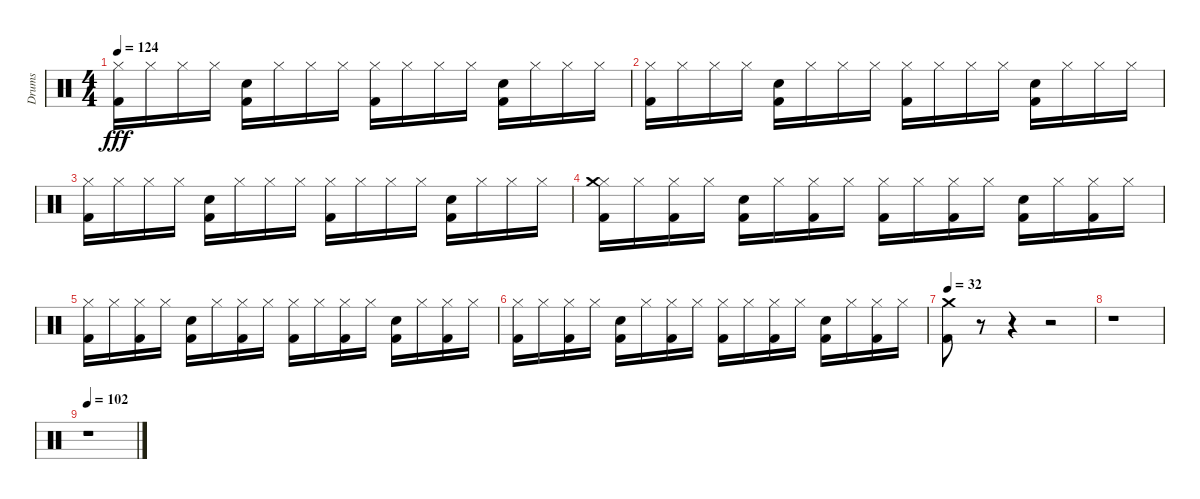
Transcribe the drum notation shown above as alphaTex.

\track ("Drums" "Drums") {instrument percussion}
\staff {score}
\articulation defaults
\ts (4 4)
\tempo 124
\clef neutral
\ks c
("Hi-Hat (closed)" "Kick (hit) 2").16{dy fff} "Hi-Hat (closed)".16 "Hi-Hat (closed)".16 "Hi-Hat (closed)".16 ("Snare (hit) 2" "Kick (hit) 2").16 "Hi-Hat (closed)".16 "Hi-Hat (closed)".16 "Hi-Hat (closed)".16 ("Hi-Hat (closed)" "Kick (hit) 2").16 "Hi-Hat (closed)".16 "Hi-Hat (closed)".16 "Hi-Hat (closed)".16 ("Snare (hit) 2" "Kick (hit) 2").16 "Hi-Hat (closed)".16 "Hi-Hat (closed)".16 "Hi-Hat (closed)".16 |
("Hi-Hat (closed)" "Kick (hit) 2").16 "Hi-Hat (closed)".16 "Hi-Hat (closed)".16 "Hi-Hat (closed)".16 ("Snare (hit) 2" "Kick (hit) 2").16 "Hi-Hat (closed)".16 "Hi-Hat (closed)".16 "Hi-Hat (closed)".16 ("Hi-Hat (closed)" "Kick (hit) 2").16 "Hi-Hat (closed)".16 "Hi-Hat (closed)".16 "Hi-Hat (closed)".16 ("Snare (hit) 2" "Kick (hit) 2").16 "Hi-Hat (closed)".16 "Hi-Hat (closed)".16 "Hi-Hat (closed)".16 |
("Hi-Hat (closed)" "Kick (hit) 2").16 "Hi-Hat (closed)".16 "Hi-Hat (closed)".16 "Hi-Hat (closed)".16 ("Snare (hit) 2" "Kick (hit) 2").16 "Hi-Hat (closed)".16 "Hi-Hat (closed)".16 "Hi-Hat (closed)".16 ("Hi-Hat (closed)" "Kick (hit) 2").16 "Hi-Hat (closed)".16 "Hi-Hat (closed)".16 "Hi-Hat (closed)".16 ("Snare (hit) 2" "Kick (hit) 2").16 "Hi-Hat (closed)".16 "Hi-Hat (closed)".16 "Hi-Hat (closed)".16 |
("Hi-Hat (closed)" "Crash medium (hit)" "Kick (hit) 2").16 "Hi-Hat (closed)".16 ("Hi-Hat (closed)" "Kick (hit) 2").16 "Hi-Hat (closed)".16 ("Snare (hit) 2" "Kick (hit) 2").16 "Hi-Hat (closed)".16 ("Hi-Hat (closed)" "Kick (hit) 2").16 "Hi-Hat (closed)".16 ("Hi-Hat (closed)" "Kick (hit) 2").16 "Hi-Hat (closed)".16 ("Hi-Hat (closed)" "Kick (hit) 2").16 "Hi-Hat (closed)".16 ("Snare (hit) 2" "Kick (hit) 2").16 "Hi-Hat (closed)".16 ("Hi-Hat (closed)" "Kick (hit) 2").16 "Hi-Hat (closed)".16 |
("Hi-Hat (closed)" "Kick (hit) 2").16 "Hi-Hat (closed)".16 ("Hi-Hat (closed)" "Kick (hit) 2").16 "Hi-Hat (closed)".16 ("Snare (hit) 2" "Kick (hit) 2").16 "Hi-Hat (closed)".16 ("Hi-Hat (closed)" "Kick (hit) 2").16 "Hi-Hat (closed)".16 ("Hi-Hat (closed)" "Kick (hit) 2").16 "Hi-Hat (closed)".16 ("Hi-Hat (closed)" "Kick (hit) 2").16 "Hi-Hat (closed)".16 ("Snare (hit) 2" "Kick (hit) 2").16 "Hi-Hat (closed)".16 ("Hi-Hat (closed)" "Kick (hit) 2").16 "Hi-Hat (closed)".16 |
("Hi-Hat (closed)" "Kick (hit) 2").16 "Hi-Hat (closed)".16 ("Hi-Hat (closed)" "Kick (hit) 2").16 "Hi-Hat (closed)".16 ("Snare (hit) 2" "Kick (hit) 2").16 "Hi-Hat (closed)".16 ("Hi-Hat (closed)" "Kick (hit) 2").16 "Hi-Hat (closed)".16 ("Hi-Hat (closed)" "Kick (hit) 2").16 "Hi-Hat (closed)".16 ("Hi-Hat (closed)" "Kick (hit) 2").16 "Hi-Hat (closed)".16 ("Snare (hit) 2" "Kick (hit) 2").16 "Hi-Hat (closed)".16 ("Hi-Hat (closed)" "Kick (hit) 2").16 "Hi-Hat (closed)".16 |
\tempo 63
\tempo 32
("Crash medium (hit)" "Kick (hit) 2").8 r.8 r.4 r.2 |
r.1 |
\tempo 102
r.1
